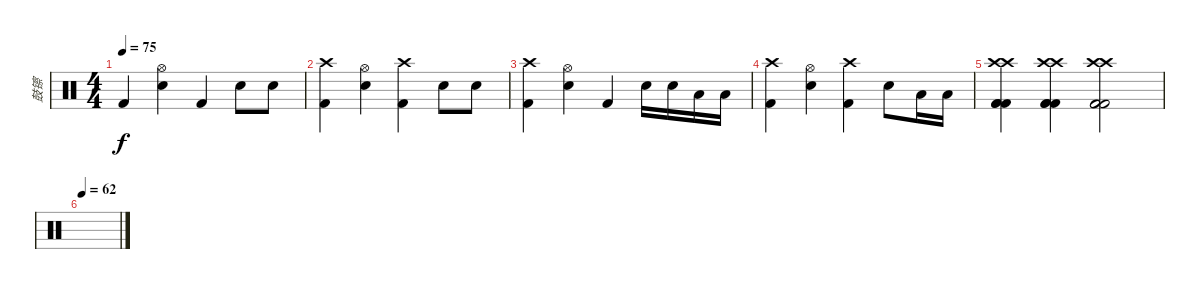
\track ("鼓镲" "鼓镲") {instrument percussion}
\staff {score}
\articulation defaults
\ts (4 4)
\tempo 75
\clef neutral
\ks c "Kick (hit) 2".4{dy f}
("Hi-Hat (open)" "Electric Snare (hit)").4 "Kick (hit) 2".4 "Electric Snare (hit)".8 "Electric Snare (hit)".8 |
("Crash high (hit)" "Kick (hit) 2").4 ("Hi-Hat (open)" "Electric Snare (hit)").4 ("Crash high (hit)" "Kick (hit) 2").4 "Electric Snare (hit)".8 "Electric Snare (hit)".8 |
("Crash high (hit)" "Kick (hit) 2").4 ("Hi-Hat (open)" "Electric Snare (hit)").4 "Kick (hit) 2".4 "Electric Snare (hit)".16 "Electric Snare (hit)".16 "Low Tom (hit)".16 "Low Tom (hit)".16 |
("Crash high (hit)" "Kick (hit) 2").4 ("Hi-Hat (open)" "Electric Snare (hit)").4 ("Crash high (hit)" "Kick (hit) 2").4 "Electric Snare (hit)".8 "Low Tom (hit)".16 "Low Tom (hit)".16 |
("Kick (hit) 2" "Crash high (hit)" "Crash high (hit)" "Kick (hit) 2" "Kick (hit) 2").4 ("Kick (hit) 2" "Crash high (hit)" "Crash high (hit)" "Kick (hit) 2" "Kick (hit) 2").4 ("Kick (hit) 2" "Crash high (hit)" "Crash high (hit)" "Kick (hit) 2" "Kick (hit) 2").2 |
\tempo 62
